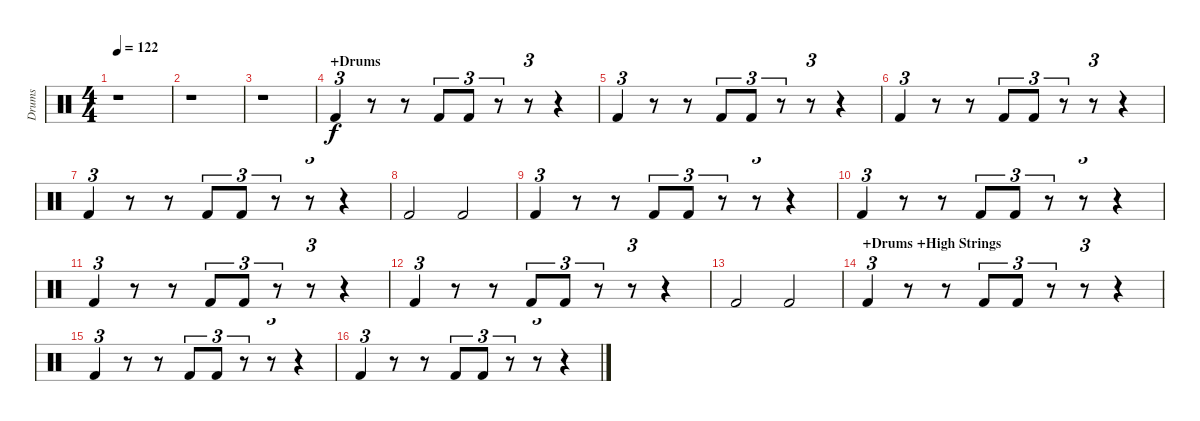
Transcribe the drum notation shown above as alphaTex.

\track ("Drums" "Drums") {instrument percussion}
\staff {score}
\articulation defaults
\ts (4 4)
\tempo 122
\clef neutral
\ks c
r.1{dy f} |
r.1 |
r.1 |
\section ("" "+Drums")
"Kick (hit) 2".4{tu (3 2)} r.8 r.8 "Kick (hit) 2".8{tu (3 2)} "Kick (hit) 2".8{tu (3 2)} r.8{tu (3 2)} r.8{tu (3 2)} r.4 |
"Kick (hit) 2".4{tu (3 2)} r.8 r.8 "Kick (hit) 2".8{tu (3 2)} "Kick (hit) 2".8{tu (3 2)} r.8{tu (3 2)} r.8{tu (3 2)} r.4 |
"Kick (hit) 2".4{tu (3 2)} r.8 r.8 "Kick (hit) 2".8{tu (3 2)} "Kick (hit) 2".8{tu (3 2)} r.8{tu (3 2)} r.8{tu (3 2)} r.4 |
"Kick (hit) 2".4{tu (3 2)} r.8 r.8 "Kick (hit) 2".8{tu (3 2)} "Kick (hit) 2".8{tu (3 2)} r.8{tu (3 2)} r.8{tu (3 2)} r.4 |
"Kick (hit) 2".2 "Kick (hit) 2".2 |
"Kick (hit) 2".4{tu (3 2)} r.8 r.8 "Kick (hit) 2".8{tu (3 2)} "Kick (hit) 2".8{tu (3 2)} r.8{tu (3 2)} r.8{tu (3 2)} r.4 |
"Kick (hit) 2".4{tu (3 2)} r.8 r.8 "Kick (hit) 2".8{tu (3 2)} "Kick (hit) 2".8{tu (3 2)} r.8{tu (3 2)} r.8{tu (3 2)} r.4 |
"Kick (hit) 2".4{tu (3 2)} r.8 r.8 "Kick (hit) 2".8{tu (3 2)} "Kick (hit) 2".8{tu (3 2)} r.8{tu (3 2)} r.8{tu (3 2)} r.4 |
"Kick (hit) 2".4{tu (3 2)} r.8 r.8 "Kick (hit) 2".8{tu (3 2)} "Kick (hit) 2".8{tu (3 2)} r.8{tu (3 2)} r.8{tu (3 2)} r.4 |
"Kick (hit) 2".2 "Kick (hit) 2".2 |
\section ("" "+Drums +High Strings")
"Kick (hit) 2".4{tu (3 2)} r.8 r.8 "Kick (hit) 2".8{tu (3 2)} "Kick (hit) 2".8{tu (3 2)} r.8{tu (3 2)} r.8{tu (3 2)} r.4 |
"Kick (hit) 2".4{tu (3 2)} r.8 r.8 "Kick (hit) 2".8{tu (3 2)} "Kick (hit) 2".8{tu (3 2)} r.8{tu (3 2)} r.8{tu (3 2)} r.4 |
"Kick (hit) 2".4{tu (3 2)} r.8 r.8 "Kick (hit) 2".8{tu (3 2)} "Kick (hit) 2".8{tu (3 2)} r.8{tu (3 2)} r.8{tu (3 2)} r.4
